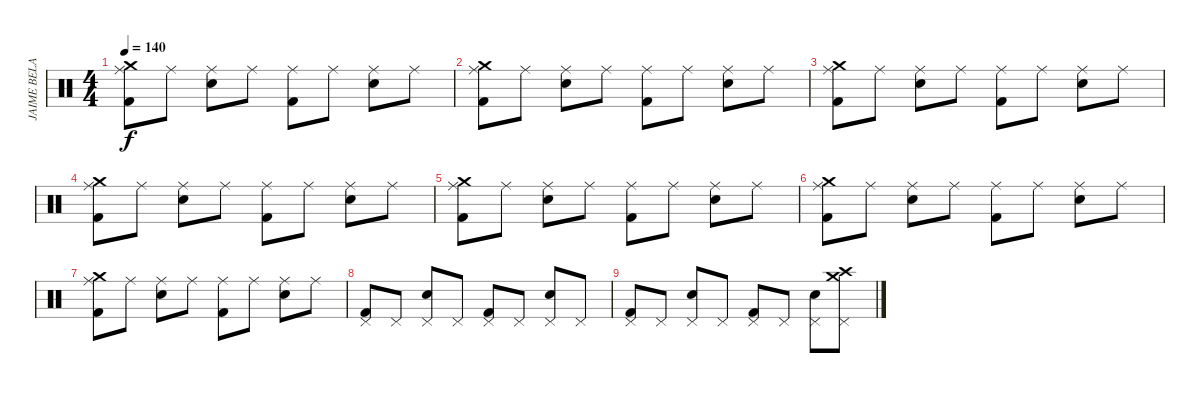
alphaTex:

\track ("JAIME BELAUSTEGUI" "JAIME BELA") {instrument percussion}
\staff {score}
\articulation defaults
\ts (4 4)
\tempo 140
\clef neutral
\ks c
("Kick (hit) 2" "Crash medium (hit)" "Ride (middle)").8{dy f} "Ride (middle)".8 ("Electric Snare (hit)" "Ride (middle)").8 "Ride (middle)".8 ("Kick (hit) 2" "Ride (middle)").8 "Ride (middle)".8 ("Electric Snare (hit)" "Ride (middle)").8 "Ride (middle)".8 |
("Kick (hit) 2" "Crash medium (hit)" "Ride (middle)").8 "Ride (middle)".8 ("Electric Snare (hit)" "Ride (middle)").8 "Ride (middle)".8 ("Kick (hit) 2" "Ride (middle)").8 "Ride (middle)".8 ("Electric Snare (hit)" "Ride (middle)").8 "Ride (middle)".8 |
("Kick (hit) 2" "Crash medium (hit)" "Ride (middle)").8 "Ride (middle)".8 ("Electric Snare (hit)" "Ride (middle)").8 "Ride (middle)".8 ("Kick (hit) 2" "Ride (middle)").8 "Ride (middle)".8 ("Electric Snare (hit)" "Ride (middle)").8 "Ride (middle)".8 |
("Kick (hit) 2" "Crash medium (hit)" "Ride (middle)").8 "Ride (middle)".8 ("Electric Snare (hit)" "Ride (middle)").8 "Ride (middle)".8 ("Kick (hit) 2" "Ride (middle)").8 "Ride (middle)".8 ("Electric Snare (hit)" "Ride (middle)").8 "Ride (middle)".8 |
("Kick (hit) 2" "Crash medium (hit)" "Ride (middle)").8 "Ride (middle)".8 ("Electric Snare (hit)" "Ride (middle)").8 "Ride (middle)".8 ("Kick (hit) 2" "Ride (middle)").8 "Ride (middle)".8 ("Electric Snare (hit)" "Ride (middle)").8 "Ride (middle)".8 |
("Kick (hit) 2" "Crash medium (hit)" "Ride (middle)").8 "Ride (middle)".8 ("Electric Snare (hit)" "Ride (middle)").8 "Ride (middle)".8 ("Kick (hit) 2" "Ride (middle)").8 "Ride (middle)".8 ("Electric Snare (hit)" "Ride (middle)").8 "Ride (middle)".8 |
("Kick (hit) 2" "Crash medium (hit)" "Ride (middle)").8 "Ride (middle)".8 ("Electric Snare (hit)" "Ride (middle)").8 "Ride (middle)".8 ("Kick (hit) 2" "Ride (middle)").8 "Ride (middle)".8 ("Electric Snare (hit)" "Ride (middle)").8 "Ride (middle)".8 |
("Kick (hit) 2" "Pedal Hi-Hat (hit)").8 "Pedal Hi-Hat (hit)".8 ("Electric Snare (hit)" "Pedal Hi-Hat (hit)").8 "Pedal Hi-Hat (hit)".8 ("Kick (hit) 2" "Pedal Hi-Hat (hit)").8 "Pedal Hi-Hat (hit)".8 ("Electric Snare (hit)" "Pedal Hi-Hat (hit)").8 "Pedal Hi-Hat (hit)".8 |
("Kick (hit) 2" "Pedal Hi-Hat (hit)").8 "Pedal Hi-Hat (hit)".8 ("Electric Snare (hit)" "Pedal Hi-Hat (hit)").8 "Pedal Hi-Hat (hit)".8 ("Kick (hit) 2" "Pedal Hi-Hat (hit)").8 "Pedal Hi-Hat (hit)".8 ("Electric Snare (hit)" "Pedal Hi-Hat (hit)").8 ("Crash medium (hit)" "Crash high (hit)" "Pedal Hi-Hat (hit)").8
